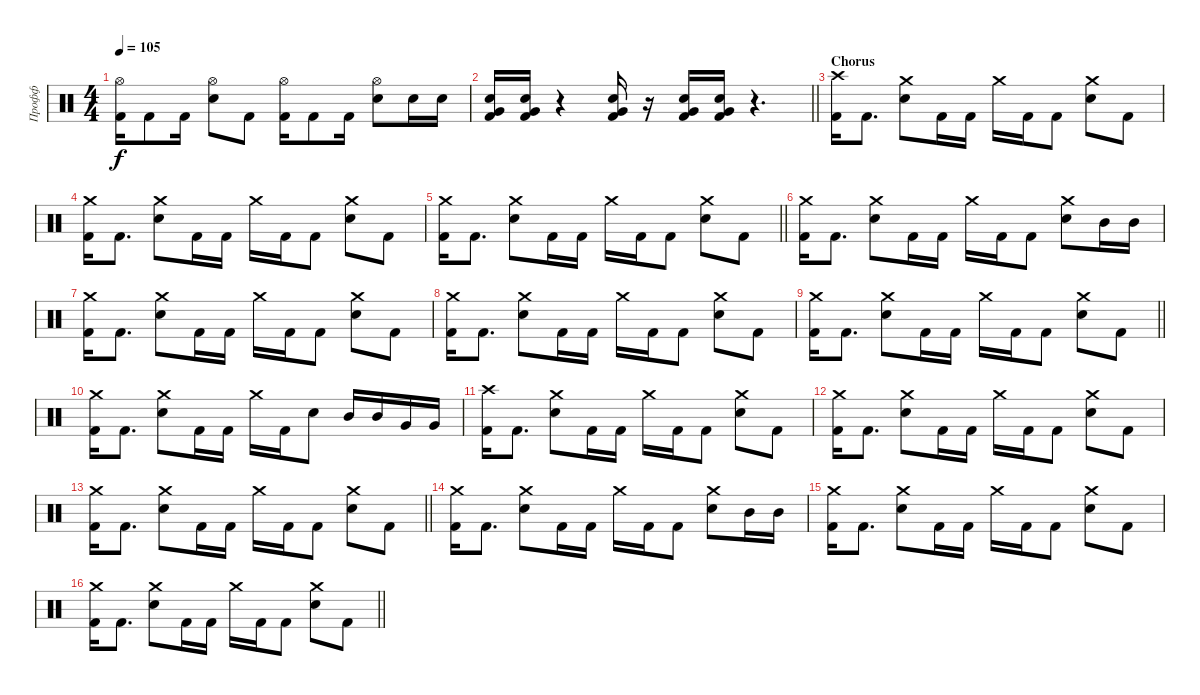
\track ("Профф" "Профф") {instrument percussion}
\staff {score}
\articulation defaults
\ts (4 4)
\tempo 105
\clef neutral
\ks c
("Hi-Hat (open)" "Kick (hit) 2").16{dy f} "Kick (hit) 2".8 "Kick (hit) 2".16 ("Hi-Hat (open)" "Snare (hit) 2").8 "Kick (hit) 2".8 ("Hi-Hat (open)" "Kick (hit) 2").16 "Kick (hit) 2".8 "Kick (hit) 2".16 ("Hi-Hat (open)" "Snare (hit) 2").8 "Snare (hit) 2".16 "Snare (hit) 2".16 |
\barLineRight lightlight
("Very Low Tom (hit)" "Snare (hit) 2" "Kick (hit) 2").16 ("Very Low Tom (hit)" "Snare (hit) 2" "Kick (hit) 2").16 r.4 ("Very Low Tom (hit)" "Snare (hit) 2" "Kick (hit) 2").16 r.16 ("Very Low Tom (hit)" "Snare (hit) 2" "Kick (hit) 2").16 ("Very Low Tom (hit)" "Snare (hit) 2" "Kick (hit) 2").16 r.4{d} |
\section ("" "Chorus")
("Crash high (hit)" "Kick (hit) 2").16 "Kick (hit) 2".8{d} ("Crash medium (hit)" "Snare (hit) 2").8 "Kick (hit) 2".16 "Kick (hit) 2".16 "Crash medium (hit)".16 "Kick (hit) 2".16 "Kick (hit) 2".8 ("Crash medium (hit)" "Snare (hit) 2").8 "Kick (hit) 2".8 |
("Crash medium (hit)" "Kick (hit) 2").16 "Kick (hit) 2".8{d} ("Crash medium (hit)" "Snare (hit) 2").8 "Kick (hit) 2".16 "Kick (hit) 2".16 "Crash medium (hit)".16 "Kick (hit) 2".16 "Kick (hit) 2".8 ("Crash medium (hit)" "Snare (hit) 2").8 "Kick (hit) 2".8 |
\barLineRight lightlight
("Crash medium (hit)" "Kick (hit) 2").16 "Kick (hit) 2".8{d} ("Crash medium (hit)" "Snare (hit) 2").8 "Kick (hit) 2".16 "Kick (hit) 2".16 "Crash medium (hit)".16 "Kick (hit) 2".16 "Kick (hit) 2".8 ("Crash medium (hit)" "Snare (hit) 2").8 "Kick (hit) 2".8 |
("Crash medium (hit)" "Kick (hit) 2").16 "Kick (hit) 2".8{d} ("Crash medium (hit)" "Snare (hit) 2").8 "Kick (hit) 2".16 "Kick (hit) 2".16 "Crash medium (hit)".16 "Kick (hit) 2".16 "Kick (hit) 2".8 ("Crash medium (hit)" "Snare (hit) 2").8 "Mid Tom (hit)".16 "Mid Tom (hit)".16 |
("Crash medium (hit)" "Kick (hit) 2").16 "Kick (hit) 2".8{d} ("Crash medium (hit)" "Snare (hit) 2").8 "Kick (hit) 2".16 "Kick (hit) 2".16 "Crash medium (hit)".16 "Kick (hit) 2".16 "Kick (hit) 2".8 ("Crash medium (hit)" "Snare (hit) 2").8 "Kick (hit) 2".8 |
("Crash medium (hit)" "Kick (hit) 2").16 "Kick (hit) 2".8{d} ("Crash medium (hit)" "Snare (hit) 2").8 "Kick (hit) 2".16 "Kick (hit) 2".16 "Crash medium (hit)".16 "Kick (hit) 2".16 "Kick (hit) 2".8 ("Crash medium (hit)" "Snare (hit) 2").8 "Kick (hit) 2".8 |
\barLineRight lightlight
("Crash medium (hit)" "Kick (hit) 2").16 "Kick (hit) 2".8{d} ("Crash medium (hit)" "Snare (hit) 2").8 "Kick (hit) 2".16 "Kick (hit) 2".16 "Crash medium (hit)".16 "Kick (hit) 2".16 "Kick (hit) 2".8 ("Crash medium (hit)" "Snare (hit) 2").8 "Kick (hit) 2".8 |
("Crash medium (hit)" "Kick (hit) 2").16 "Kick (hit) 2".8{d} ("Crash medium (hit)" "Snare (hit) 2").8 "Kick (hit) 2".16 "Kick (hit) 2".16 "Crash medium (hit)".16 "Kick (hit) 2".16 "Snare (hit) 2".8 "Mid Tom (hit)".16 "Mid Tom (hit)".16 "Very Low Tom (hit)".16 "Very Low Tom (hit)".16 |
("Crash high (hit)" "Kick (hit) 2").16 "Kick (hit) 2".8{d} ("Crash medium (hit)" "Snare (hit) 2").8 "Kick (hit) 2".16 "Kick (hit) 2".16 "Crash medium (hit)".16 "Kick (hit) 2".16 "Kick (hit) 2".8 ("Crash medium (hit)" "Snare (hit) 2").8 "Kick (hit) 2".8 |
("Crash medium (hit)" "Kick (hit) 2").16 "Kick (hit) 2".8{d} ("Crash medium (hit)" "Snare (hit) 2").8 "Kick (hit) 2".16 "Kick (hit) 2".16 "Crash medium (hit)".16 "Kick (hit) 2".16 "Kick (hit) 2".8 ("Crash medium (hit)" "Snare (hit) 2").8 "Kick (hit) 2".8 |
\barLineRight lightlight
("Crash medium (hit)" "Kick (hit) 2").16 "Kick (hit) 2".8{d} ("Crash medium (hit)" "Snare (hit) 2").8 "Kick (hit) 2".16 "Kick (hit) 2".16 "Crash medium (hit)".16 "Kick (hit) 2".16 "Kick (hit) 2".8 ("Crash medium (hit)" "Snare (hit) 2").8 "Kick (hit) 2".8 |
("Crash medium (hit)" "Kick (hit) 2").16 "Kick (hit) 2".8{d} ("Crash medium (hit)" "Snare (hit) 2").8 "Kick (hit) 2".16 "Kick (hit) 2".16 "Crash medium (hit)".16 "Kick (hit) 2".16 "Kick (hit) 2".8 ("Crash medium (hit)" "Snare (hit) 2").8 "Mid Tom (hit)".16 "Mid Tom (hit)".16 |
("Crash medium (hit)" "Kick (hit) 2").16 "Kick (hit) 2".8{d} ("Crash medium (hit)" "Snare (hit) 2").8 "Kick (hit) 2".16 "Kick (hit) 2".16 "Crash medium (hit)".16 "Kick (hit) 2".16 "Kick (hit) 2".8 ("Crash medium (hit)" "Snare (hit) 2").8 "Kick (hit) 2".8 |
\barLineRight lightlight
("Crash medium (hit)" "Kick (hit) 2").16 "Kick (hit) 2".8{d} ("Crash medium (hit)" "Snare (hit) 2").8 "Kick (hit) 2".16 "Kick (hit) 2".16 "Crash medium (hit)".16 "Kick (hit) 2".16 "Kick (hit) 2".8 ("Crash medium (hit)" "Snare (hit) 2").8 "Kick (hit) 2".8
